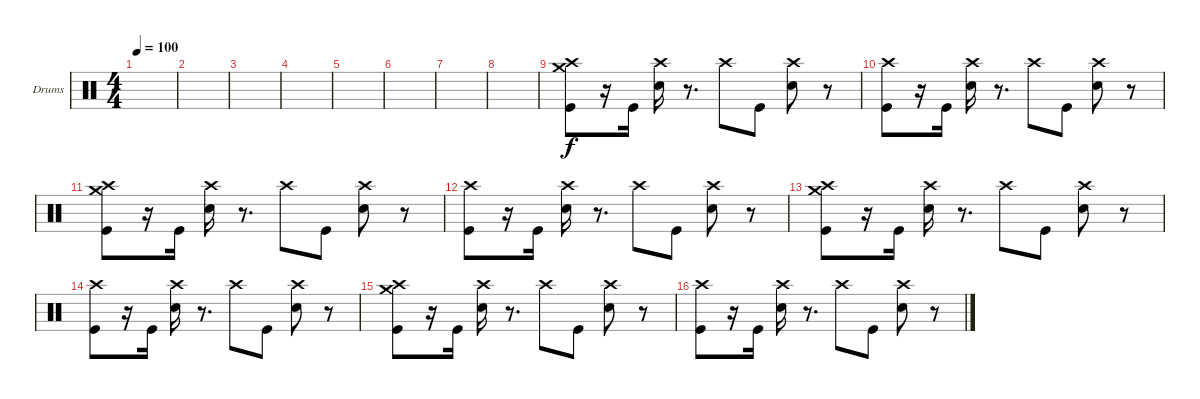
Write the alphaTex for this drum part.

\bracketExtendMode groupsimilarinstruments
\firstSystemTrackNameOrientation horizontal
\otherSystemsTrackNameOrientation horizontal
\track ("Lars Ulrich (Drum)" "Drums") {instrument percussion}
\staff {score}
\articulation defaults
\ts (4 4)
\tempo 100
\clef neutral
\scale
0.474178
\ks c
|
\scale
0.262911 |
\scale
0.262911 |
\scale
0.333333 |
\scale
0.333333 |
\scale
0.333333 |
\scale
0.333333 |
\scale
0.333333 |
\scale
0.333333 ("Crash medium (hit)" "Crash high (hit)" "Kick (hit)").8 r.16 "Kick (hit)".16 ("Crash high (hit)" "Snare (hit) 2").16 r.8{d} "Crash high (hit)".8 "Kick (hit)".8 ("Crash high (hit)" "Snare (hit) 2").8 r.8 |
\scale
0.333333 ("Crash high (hit)" "Kick (hit)").8 r.16 "Kick (hit)".16 ("Crash high (hit)" "Snare (hit) 2").16 r.8{d} "Crash high (hit)".8 "Kick (hit)".8 ("Crash high (hit)" "Snare (hit) 2").8 r.8 |
\scale
0.333333 ("Crash medium (hit)" "Crash high (hit)" "Kick (hit)").8 r.16 "Kick (hit)".16 ("Crash high (hit)" "Snare (hit) 2").16 r.8{d} "Crash high (hit)".8 "Kick (hit)".8 ("Crash high (hit)" "Snare (hit) 2").8 r.8 |
\scale
0.333333 ("Crash high (hit)" "Kick (hit)").8 r.16 "Kick (hit)".16 ("Crash high (hit)" "Snare (hit) 2").16 r.8{d} "Crash high (hit)".8 "Kick (hit)".8 ("Crash high (hit)" "Snare (hit) 2").8 r.8 |
\scale
0.333333 ("Crash medium (hit)" "Crash high (hit)" "Kick (hit)").8 r.16 "Kick (hit)".16 ("Crash high (hit)" "Snare (hit) 2").16 r.8{d} "Crash high (hit)".8 "Kick (hit)".8 ("Crash high (hit)" "Snare (hit) 2").8 r.8 |
\scale
0.333333 ("Crash high (hit)" "Kick (hit)").8 r.16 "Kick (hit)".16 ("Crash high (hit)" "Snare (hit) 2").16 r.8{d} "Crash high (hit)".8 "Kick (hit)".8 ("Crash high (hit)" "Snare (hit) 2").8 r.8 |
\scale
0.333333 ("Crash medium (hit)" "Crash high (hit)" "Kick (hit)").8 r.16 "Kick (hit)".16 ("Crash high (hit)" "Snare (hit) 2").16 r.8{d} "Crash high (hit)".8 "Kick (hit)".8 ("Crash high (hit)" "Snare (hit) 2").8 r.8 |
\scale
0.217054 ("Crash high (hit)" "Kick (hit)").8 r.16 "Kick (hit)".16 ("Crash high (hit)" "Snare (hit) 2").16 r.8{d} "Crash high (hit)".8 "Kick (hit)".8 ("Crash high (hit)" "Snare (hit) 2").8 r.8
